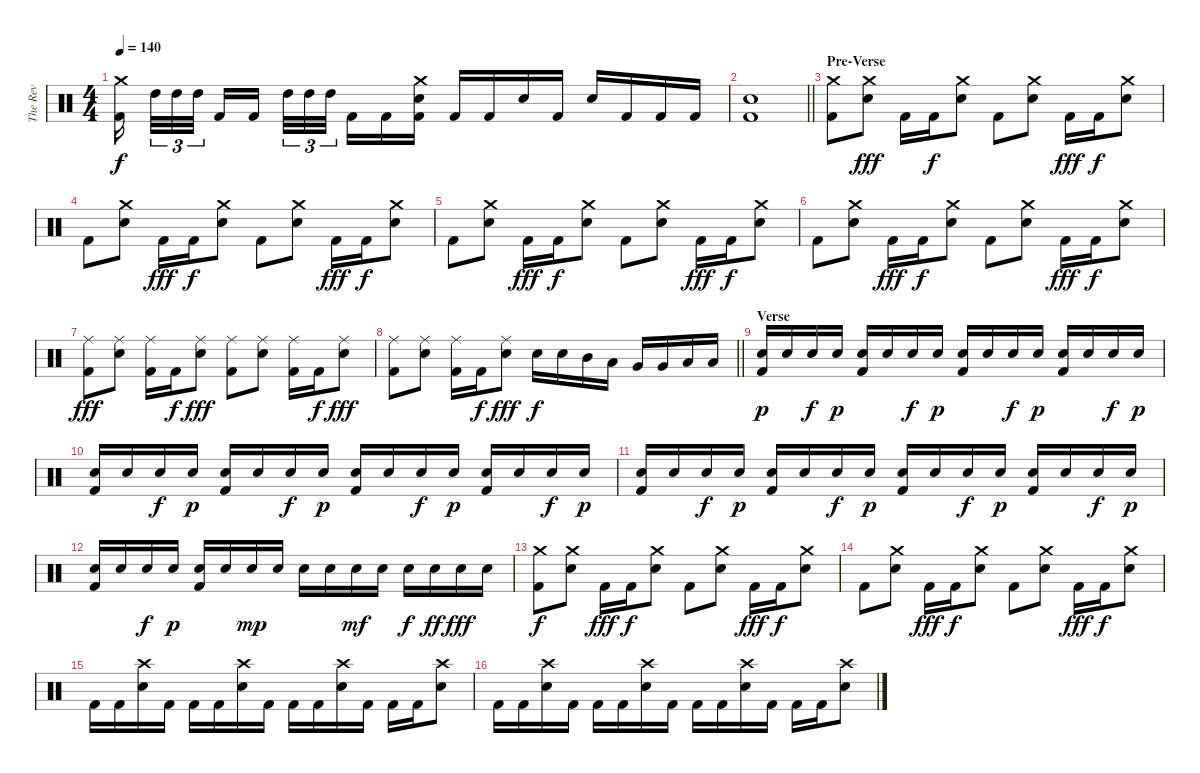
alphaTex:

\track ("The Rev" "The Rev") {instrument percussion}
\staff {score}
\articulation defaults
\ts (4 4)
\tempo 140
\clef neutral
\ks c
("Crash medium (hit)" "Kick (hit) 2").16{dy f beam splitsecondary} "High Tom (hit)".32{tu (3 2)} "High Tom (hit)".32{tu (3 2)} "High Tom (hit)".32{tu (3 2) beam splitsecondary} "Kick (hit) 2".16 "Kick (hit) 2".16 "High Tom (hit)".32{tu (3 2)} "High Tom (hit)".32{tu (3 2)} "High Tom (hit)".32{tu (3 2) beam splitsecondary} "Kick (hit) 2".16 "Kick (hit) 2".16 ("Crash medium (hit)" "Snare (hit) 2" "Kick (hit) 2").16 "Kick (hit) 2".16 "Kick (hit) 2".16 "Snare (hit) 2".16 "Kick (hit) 2".16 "Snare (hit) 2".16 "Kick (hit) 2".16 "Kick (hit) 2".16 "Kick (hit) 2".16 |
\barLineRight lightlight
("Snare (hit) 2" "Kick (hit) 2").1 |
\section ("" "Pre-Verse")
("Crash medium (hit)" "Kick (hit) 2").8 ("Crash medium (hit)" "Snare (hit) 2").8{dy fff} "Kick (hit) 2".16 "Kick (hit) 2".16{dy f} ("Crash medium (hit)" "Snare (hit) 2").8 "Kick (hit) 2".8 ("Crash medium (hit)" "Snare (hit) 2").8 "Kick (hit) 2".16{dy fff} "Kick (hit) 2".16{dy f} ("Crash medium (hit)" "Snare (hit) 2").8 |
"Kick (hit) 2".8 ("Crash medium (hit)" "Snare (hit) 2").8 "Kick (hit) 2".16{dy fff} "Kick (hit) 2".16{dy f} ("Crash medium (hit)" "Snare (hit) 2").8 "Kick (hit) 2".8 ("Crash medium (hit)" "Snare (hit) 2").8 "Kick (hit) 2".16{dy fff} "Kick (hit) 2".16{dy f} ("Crash medium (hit)" "Snare (hit) 2").8 |
"Kick (hit) 2".8 ("Crash medium (hit)" "Snare (hit) 2").8 "Kick (hit) 2".16{dy fff} "Kick (hit) 2".16{dy f} ("Crash medium (hit)" "Snare (hit) 2").8 "Kick (hit) 2".8 ("Crash medium (hit)" "Snare (hit) 2").8 "Kick (hit) 2".16{dy fff} "Kick (hit) 2".16{dy f} ("Crash medium (hit)" "Snare (hit) 2").8 |
"Kick (hit) 2".8 ("Crash medium (hit)" "Snare (hit) 2").8 "Kick (hit) 2".16{dy fff} "Kick (hit) 2".16{dy f} ("Crash medium (hit)" "Snare (hit) 2").8 "Kick (hit) 2".8 ("Crash medium (hit)" "Snare (hit) 2").8 "Kick (hit) 2".16{dy fff} "Kick (hit) 2".16{dy f} ("Crash medium (hit)" "Snare (hit) 2").8 |
("Ride (middle)" "Kick (hit) 2").8{dy fff} ("Ride (middle)" "Snare (hit) 2").8 ("Ride (middle)" "Kick (hit) 2").16 "Kick (hit) 2".16{dy f} ("Ride (middle)" "Snare (hit) 2").8{dy fff} ("Ride (middle)" "Kick (hit) 2").8 ("Ride (middle)" "Snare (hit) 2").8 ("Ride (middle)" "Kick (hit) 2").16 "Kick (hit) 2".16{dy f} ("Ride (middle)" "Snare (hit) 2").8{dy fff} |
\barLineRight lightlight
("Ride (middle)" "Kick (hit) 2").8 ("Ride (middle)" "Snare (hit) 2").8 ("Ride (middle)" "Kick (hit) 2").16 "Kick (hit) 2".16{dy f} ("Ride (middle)" "Snare (hit) 2").8{dy fff} "Snare (hit) 2".16{dy f} "Snare (hit) 2".16 "Mid Tom (hit)".16 "Low Tom (hit)".16 "Very Low Tom (hit)".16 "Very Low Tom (hit)".16 "Low Floor Tom (hit)".16 "Low Floor Tom (hit)".16 |
\section ("" "Verse")
("Snare (hit) 2" "Kick (hit) 2").16{dy p} "Snare (hit) 2".16 "Snare (hit) 2".16{dy f} "Snare (hit) 2".16{dy p} ("Snare (hit) 2" "Kick (hit) 2").16 "Snare (hit) 2".16 "Snare (hit) 2".16{dy f} "Snare (hit) 2".16{dy p} ("Snare (hit) 2" "Kick (hit) 2").16 "Snare (hit) 2".16 "Snare (hit) 2".16{dy f} "Snare (hit) 2".16{dy p} ("Snare (hit) 2" "Kick (hit) 2").16 "Snare (hit) 2".16 "Snare (hit) 2".16{dy f} "Snare (hit) 2".16{dy p} |
("Snare (hit) 2" "Kick (hit) 2").16 "Snare (hit) 2".16 "Snare (hit) 2".16{dy f} "Snare (hit) 2".16{dy p} ("Snare (hit) 2" "Kick (hit) 2").16 "Snare (hit) 2".16 "Snare (hit) 2".16{dy f} "Snare (hit) 2".16{dy p} ("Snare (hit) 2" "Kick (hit) 2").16 "Snare (hit) 2".16 "Snare (hit) 2".16{dy f} "Snare (hit) 2".16{dy p} ("Snare (hit) 2" "Kick (hit) 2").16 "Snare (hit) 2".16 "Snare (hit) 2".16{dy f} "Snare (hit) 2".16{dy p} |
("Snare (hit) 2" "Kick (hit) 2").16 "Snare (hit) 2".16 "Snare (hit) 2".16{dy f} "Snare (hit) 2".16{dy p} ("Snare (hit) 2" "Kick (hit) 2").16 "Snare (hit) 2".16 "Snare (hit) 2".16{dy f} "Snare (hit) 2".16{dy p} ("Snare (hit) 2" "Kick (hit) 2").16 "Snare (hit) 2".16 "Snare (hit) 2".16{dy f} "Snare (hit) 2".16{dy p} ("Snare (hit) 2" "Kick (hit) 2").16 "Snare (hit) 2".16 "Snare (hit) 2".16{dy f} "Snare (hit) 2".16{dy p} |
("Snare (hit) 2" "Kick (hit) 2").16 "Snare (hit) 2".16 "Snare (hit) 2".16{dy f} "Snare (hit) 2".16{dy p} ("Snare (hit) 2" "Kick (hit) 2").16 "Snare (hit) 2".16 "Snare (hit) 2".16{dy mp} "Snare (hit) 2".16 "Snare (hit) 2".16 "Snare (hit) 2".16 "Snare (hit) 2".16{dy mf} "Snare (hit) 2".16 "Snare (hit) 2".16{dy f} "Snare (hit) 2".16{dy ff} "Snare (hit) 2".16{dy fff} "Snare (hit) 2".16 |
("Crash medium (hit)" "Kick (hit) 2").8{dy f} ("Crash medium (hit)" "Snare (hit) 2").8 "Kick (hit) 2".16{dy fff} "Kick (hit) 2".16{dy f} ("Crash medium (hit)" "Snare (hit) 2").8 "Kick (hit) 2".8 ("Crash medium (hit)" "Snare (hit) 2").8 "Kick (hit) 2".16{dy fff} "Kick (hit) 2".16{dy f} ("Crash medium (hit)" "Snare (hit) 2").8 |
"Kick (hit) 2".8 ("Crash medium (hit)" "Snare (hit) 2").8 "Kick (hit) 2".16{dy fff} "Kick (hit) 2".16{dy f} ("Crash medium (hit)" "Snare (hit) 2").8 "Kick (hit) 2".8 ("Crash medium (hit)" "Snare (hit) 2").8 "Kick (hit) 2".16{dy fff} "Kick (hit) 2".16{dy f} ("Crash medium (hit)" "Snare (hit) 2").8 |
"Kick (hit) 2".16 "Kick (hit) 2".16 ("Crash high (hit)" "Snare (hit) 2").16 "Kick (hit) 2".16 "Kick (hit) 2".16 "Kick (hit) 2".16 ("Crash high (hit)" "Snare (hit) 2").16 "Kick (hit) 2".16 "Kick (hit) 2".16 "Kick (hit) 2".16 ("Crash high (hit)" "Snare (hit) 2").16 "Kick (hit) 2".16 "Kick (hit) 2".16 "Kick (hit) 2".16 ("Crash high (hit)" "Snare (hit) 2").8 |
"Kick (hit) 2".16 "Kick (hit) 2".16 ("Crash high (hit)" "Snare (hit) 2").16 "Kick (hit) 2".16 "Kick (hit) 2".16 "Kick (hit) 2".16 ("Crash high (hit)" "Snare (hit) 2").16 "Kick (hit) 2".16 "Kick (hit) 2".16 "Kick (hit) 2".16 ("Crash high (hit)" "Snare (hit) 2").16 "Kick (hit) 2".16 "Kick (hit) 2".16 "Kick (hit) 2".16 ("Crash high (hit)" "Snare (hit) 2").8
